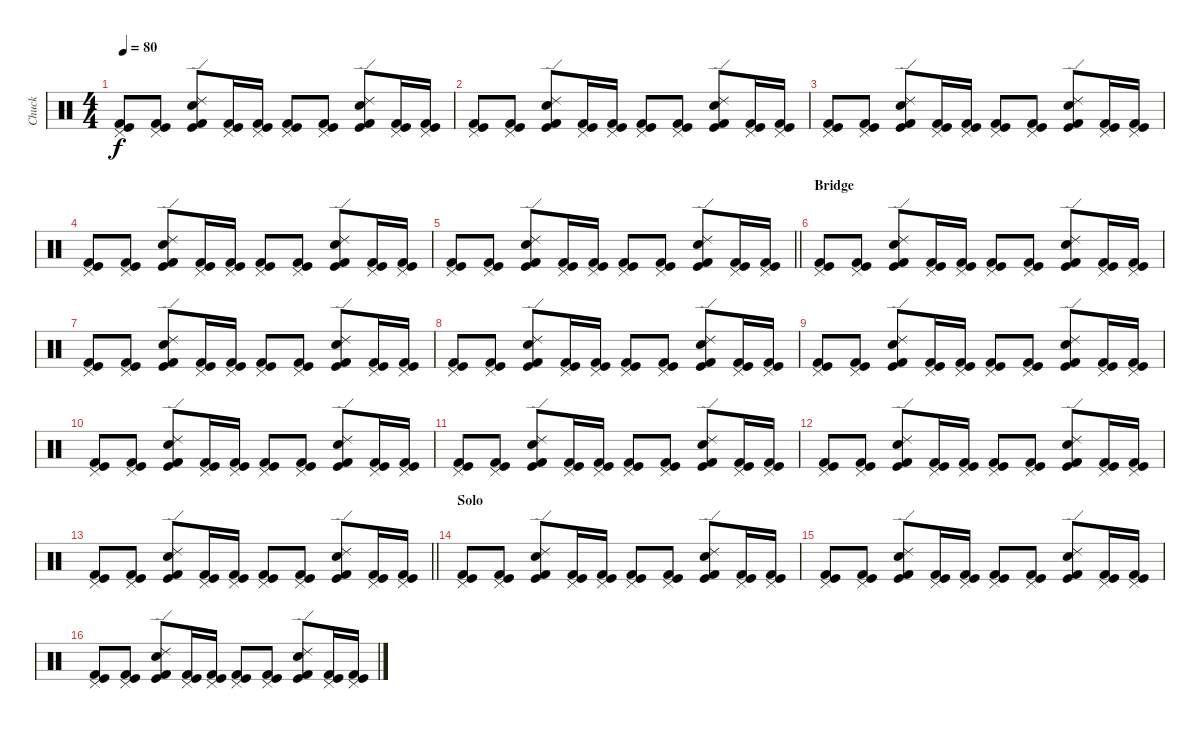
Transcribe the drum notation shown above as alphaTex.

\track ("Chuck" "Chuck") {instrument percussion}
\staff {score}
\articulation defaults
\ts (4 4)
\tempo 80
\clef neutral
\ks c
("Pedal Hi-Hat (hit)" "Kick (hit)" "Kick (hit) 2").8{dy f} ("Pedal Hi-Hat (hit)" "Kick (hit)" "Kick (hit) 2").8 ("Ride (edge) 2" "Kick (hit)" "Kick (hit) 2" "Electric Snare (hit)").8 ("Pedal Hi-Hat (hit)" "Kick (hit)" "Kick (hit) 2").16 ("Pedal Hi-Hat (hit)" "Kick (hit)" "Kick (hit) 2").16 ("Pedal Hi-Hat (hit)" "Kick (hit)" "Kick (hit) 2").8 ("Pedal Hi-Hat (hit)" "Kick (hit)" "Kick (hit) 2").8 ("Ride (edge) 2" "Kick (hit)" "Kick (hit) 2" "Electric Snare (hit)").8 ("Pedal Hi-Hat (hit)" "Kick (hit)" "Kick (hit) 2").16 ("Pedal Hi-Hat (hit)" "Kick (hit)" "Kick (hit) 2").16 |
("Pedal Hi-Hat (hit)" "Kick (hit)" "Kick (hit) 2").8 ("Pedal Hi-Hat (hit)" "Kick (hit)" "Kick (hit) 2").8 ("Ride (edge) 2" "Kick (hit)" "Kick (hit) 2" "Electric Snare (hit)").8 ("Pedal Hi-Hat (hit)" "Kick (hit)" "Kick (hit) 2").16 ("Pedal Hi-Hat (hit)" "Kick (hit)" "Kick (hit) 2").16 ("Pedal Hi-Hat (hit)" "Kick (hit)" "Kick (hit) 2").8 ("Pedal Hi-Hat (hit)" "Kick (hit)" "Kick (hit) 2").8 ("Ride (edge) 2" "Kick (hit)" "Kick (hit) 2" "Electric Snare (hit)").8 ("Pedal Hi-Hat (hit)" "Kick (hit)" "Kick (hit) 2").16 ("Pedal Hi-Hat (hit)" "Kick (hit)" "Kick (hit) 2").16 |
("Pedal Hi-Hat (hit)" "Kick (hit)" "Kick (hit) 2").8 ("Pedal Hi-Hat (hit)" "Kick (hit)" "Kick (hit) 2").8 ("Ride (edge) 2" "Kick (hit)" "Kick (hit) 2" "Electric Snare (hit)").8 ("Pedal Hi-Hat (hit)" "Kick (hit)" "Kick (hit) 2").16 ("Pedal Hi-Hat (hit)" "Kick (hit)" "Kick (hit) 2").16 ("Pedal Hi-Hat (hit)" "Kick (hit)" "Kick (hit) 2").8 ("Pedal Hi-Hat (hit)" "Kick (hit)" "Kick (hit) 2").8 ("Ride (edge) 2" "Kick (hit)" "Kick (hit) 2" "Electric Snare (hit)").8 ("Pedal Hi-Hat (hit)" "Kick (hit)" "Kick (hit) 2").16 ("Pedal Hi-Hat (hit)" "Kick (hit)" "Kick (hit) 2").16 |
("Pedal Hi-Hat (hit)" "Kick (hit)" "Kick (hit) 2").8 ("Pedal Hi-Hat (hit)" "Kick (hit)" "Kick (hit) 2").8 ("Ride (edge) 2" "Kick (hit)" "Kick (hit) 2" "Electric Snare (hit)").8 ("Pedal Hi-Hat (hit)" "Kick (hit)" "Kick (hit) 2").16 ("Pedal Hi-Hat (hit)" "Kick (hit)" "Kick (hit) 2").16 ("Pedal Hi-Hat (hit)" "Kick (hit)" "Kick (hit) 2").8 ("Pedal Hi-Hat (hit)" "Kick (hit)" "Kick (hit) 2").8 ("Ride (edge) 2" "Kick (hit)" "Kick (hit) 2" "Electric Snare (hit)").8 ("Pedal Hi-Hat (hit)" "Kick (hit)" "Kick (hit) 2").16 ("Pedal Hi-Hat (hit)" "Kick (hit)" "Kick (hit) 2").16 |
\barLineRight lightlight
("Pedal Hi-Hat (hit)" "Kick (hit)" "Kick (hit) 2").8 ("Pedal Hi-Hat (hit)" "Kick (hit)" "Kick (hit) 2").8 ("Ride (edge) 2" "Kick (hit)" "Kick (hit) 2" "Electric Snare (hit)").8 ("Pedal Hi-Hat (hit)" "Kick (hit)" "Kick (hit) 2").16 ("Pedal Hi-Hat (hit)" "Kick (hit)" "Kick (hit) 2").16 ("Pedal Hi-Hat (hit)" "Kick (hit)" "Kick (hit) 2").8 ("Pedal Hi-Hat (hit)" "Kick (hit)" "Kick (hit) 2").8 ("Ride (edge) 2" "Kick (hit)" "Kick (hit) 2" "Electric Snare (hit)").8 ("Pedal Hi-Hat (hit)" "Kick (hit)" "Kick (hit) 2").16 ("Pedal Hi-Hat (hit)" "Kick (hit)" "Kick (hit) 2").16 |
\section ("" "Bridge")
("Pedal Hi-Hat (hit)" "Kick (hit)" "Kick (hit) 2").8 ("Pedal Hi-Hat (hit)" "Kick (hit)" "Kick (hit) 2").8 ("Ride (edge) 2" "Kick (hit)" "Kick (hit) 2" "Electric Snare (hit)").8 ("Pedal Hi-Hat (hit)" "Kick (hit)" "Kick (hit) 2").16 ("Pedal Hi-Hat (hit)" "Kick (hit)" "Kick (hit) 2").16 ("Pedal Hi-Hat (hit)" "Kick (hit)" "Kick (hit) 2").8 ("Pedal Hi-Hat (hit)" "Kick (hit)" "Kick (hit) 2").8 ("Ride (edge) 2" "Kick (hit)" "Kick (hit) 2" "Electric Snare (hit)").8 ("Pedal Hi-Hat (hit)" "Kick (hit)" "Kick (hit) 2").16 ("Pedal Hi-Hat (hit)" "Kick (hit)" "Kick (hit) 2").16 |
("Pedal Hi-Hat (hit)" "Kick (hit)" "Kick (hit) 2").8 ("Pedal Hi-Hat (hit)" "Kick (hit)" "Kick (hit) 2").8 ("Ride (edge) 2" "Kick (hit)" "Kick (hit) 2" "Electric Snare (hit)").8 ("Pedal Hi-Hat (hit)" "Kick (hit)" "Kick (hit) 2").16 ("Pedal Hi-Hat (hit)" "Kick (hit)" "Kick (hit) 2").16 ("Pedal Hi-Hat (hit)" "Kick (hit)" "Kick (hit) 2").8 ("Pedal Hi-Hat (hit)" "Kick (hit)" "Kick (hit) 2").8 ("Ride (edge) 2" "Kick (hit)" "Kick (hit) 2" "Electric Snare (hit)").8 ("Pedal Hi-Hat (hit)" "Kick (hit)" "Kick (hit) 2").16 ("Pedal Hi-Hat (hit)" "Kick (hit)" "Kick (hit) 2").16 |
("Pedal Hi-Hat (hit)" "Kick (hit)" "Kick (hit) 2").8 ("Pedal Hi-Hat (hit)" "Kick (hit)" "Kick (hit) 2").8 ("Ride (edge) 2" "Kick (hit)" "Kick (hit) 2" "Electric Snare (hit)").8 ("Pedal Hi-Hat (hit)" "Kick (hit)" "Kick (hit) 2").16 ("Pedal Hi-Hat (hit)" "Kick (hit)" "Kick (hit) 2").16 ("Pedal Hi-Hat (hit)" "Kick (hit)" "Kick (hit) 2").8 ("Pedal Hi-Hat (hit)" "Kick (hit)" "Kick (hit) 2").8 ("Ride (edge) 2" "Kick (hit)" "Kick (hit) 2" "Electric Snare (hit)").8 ("Pedal Hi-Hat (hit)" "Kick (hit)" "Kick (hit) 2").16 ("Pedal Hi-Hat (hit)" "Kick (hit)" "Kick (hit) 2").16 |
("Pedal Hi-Hat (hit)" "Kick (hit)" "Kick (hit) 2").8 ("Pedal Hi-Hat (hit)" "Kick (hit)" "Kick (hit) 2").8 ("Ride (edge) 2" "Kick (hit)" "Kick (hit) 2" "Electric Snare (hit)").8 ("Pedal Hi-Hat (hit)" "Kick (hit)" "Kick (hit) 2").16 ("Pedal Hi-Hat (hit)" "Kick (hit)" "Kick (hit) 2").16 ("Pedal Hi-Hat (hit)" "Kick (hit)" "Kick (hit) 2").8 ("Pedal Hi-Hat (hit)" "Kick (hit)" "Kick (hit) 2").8 ("Ride (edge) 2" "Kick (hit)" "Kick (hit) 2" "Electric Snare (hit)").8 ("Pedal Hi-Hat (hit)" "Kick (hit)" "Kick (hit) 2").16 ("Pedal Hi-Hat (hit)" "Kick (hit)" "Kick (hit) 2").16 |
("Pedal Hi-Hat (hit)" "Kick (hit)" "Kick (hit) 2").8 ("Pedal Hi-Hat (hit)" "Kick (hit)" "Kick (hit) 2").8 ("Ride (edge) 2" "Kick (hit)" "Kick (hit) 2" "Electric Snare (hit)").8 ("Pedal Hi-Hat (hit)" "Kick (hit)" "Kick (hit) 2").16 ("Pedal Hi-Hat (hit)" "Kick (hit)" "Kick (hit) 2").16 ("Pedal Hi-Hat (hit)" "Kick (hit)" "Kick (hit) 2").8 ("Pedal Hi-Hat (hit)" "Kick (hit)" "Kick (hit) 2").8 ("Ride (edge) 2" "Kick (hit)" "Kick (hit) 2" "Electric Snare (hit)").8 ("Pedal Hi-Hat (hit)" "Kick (hit)" "Kick (hit) 2").16 ("Pedal Hi-Hat (hit)" "Kick (hit)" "Kick (hit) 2").16 |
("Pedal Hi-Hat (hit)" "Kick (hit)" "Kick (hit) 2").8 ("Pedal Hi-Hat (hit)" "Kick (hit)" "Kick (hit) 2").8 ("Ride (edge) 2" "Kick (hit)" "Kick (hit) 2" "Electric Snare (hit)").8 ("Pedal Hi-Hat (hit)" "Kick (hit)" "Kick (hit) 2").16 ("Pedal Hi-Hat (hit)" "Kick (hit)" "Kick (hit) 2").16 ("Pedal Hi-Hat (hit)" "Kick (hit)" "Kick (hit) 2").8 ("Pedal Hi-Hat (hit)" "Kick (hit)" "Kick (hit) 2").8 ("Ride (edge) 2" "Kick (hit)" "Kick (hit) 2" "Electric Snare (hit)").8 ("Pedal Hi-Hat (hit)" "Kick (hit)" "Kick (hit) 2").16 ("Pedal Hi-Hat (hit)" "Kick (hit)" "Kick (hit) 2").16 |
("Pedal Hi-Hat (hit)" "Kick (hit)" "Kick (hit) 2").8 ("Pedal Hi-Hat (hit)" "Kick (hit)" "Kick (hit) 2").8 ("Ride (edge) 2" "Kick (hit)" "Kick (hit) 2" "Electric Snare (hit)").8 ("Pedal Hi-Hat (hit)" "Kick (hit)" "Kick (hit) 2").16 ("Pedal Hi-Hat (hit)" "Kick (hit)" "Kick (hit) 2").16 ("Pedal Hi-Hat (hit)" "Kick (hit)" "Kick (hit) 2").8 ("Pedal Hi-Hat (hit)" "Kick (hit)" "Kick (hit) 2").8 ("Ride (edge) 2" "Kick (hit)" "Kick (hit) 2" "Electric Snare (hit)").8 ("Pedal Hi-Hat (hit)" "Kick (hit)" "Kick (hit) 2").16 ("Pedal Hi-Hat (hit)" "Kick (hit)" "Kick (hit) 2").16 |
\barLineRight lightlight
("Pedal Hi-Hat (hit)" "Kick (hit)" "Kick (hit) 2").8 ("Pedal Hi-Hat (hit)" "Kick (hit)" "Kick (hit) 2").8 ("Ride (edge) 2" "Kick (hit)" "Kick (hit) 2" "Electric Snare (hit)").8 ("Pedal Hi-Hat (hit)" "Kick (hit)" "Kick (hit) 2").16 ("Pedal Hi-Hat (hit)" "Kick (hit)" "Kick (hit) 2").16 ("Pedal Hi-Hat (hit)" "Kick (hit)" "Kick (hit) 2").8 ("Pedal Hi-Hat (hit)" "Kick (hit)" "Kick (hit) 2").8 ("Ride (edge) 2" "Kick (hit)" "Kick (hit) 2" "Electric Snare (hit)").8 ("Pedal Hi-Hat (hit)" "Kick (hit)" "Kick (hit) 2").16 ("Pedal Hi-Hat (hit)" "Kick (hit)" "Kick (hit) 2").16 |
\section ("" "Solo")
("Pedal Hi-Hat (hit)" "Kick (hit)" "Kick (hit) 2").8 ("Pedal Hi-Hat (hit)" "Kick (hit)" "Kick (hit) 2").8 ("Ride (edge) 2" "Kick (hit)" "Kick (hit) 2" "Electric Snare (hit)").8 ("Pedal Hi-Hat (hit)" "Kick (hit)" "Kick (hit) 2").16 ("Pedal Hi-Hat (hit)" "Kick (hit)" "Kick (hit) 2").16 ("Pedal Hi-Hat (hit)" "Kick (hit)" "Kick (hit) 2").8 ("Pedal Hi-Hat (hit)" "Kick (hit)" "Kick (hit) 2").8 ("Ride (edge) 2" "Kick (hit)" "Kick (hit) 2" "Electric Snare (hit)").8 ("Pedal Hi-Hat (hit)" "Kick (hit)" "Kick (hit) 2").16 ("Pedal Hi-Hat (hit)" "Kick (hit)" "Kick (hit) 2").16 |
("Pedal Hi-Hat (hit)" "Kick (hit)" "Kick (hit) 2").8 ("Pedal Hi-Hat (hit)" "Kick (hit)" "Kick (hit) 2").8 ("Ride (edge) 2" "Kick (hit)" "Kick (hit) 2" "Electric Snare (hit)").8 ("Pedal Hi-Hat (hit)" "Kick (hit)" "Kick (hit) 2").16 ("Pedal Hi-Hat (hit)" "Kick (hit)" "Kick (hit) 2").16 ("Pedal Hi-Hat (hit)" "Kick (hit)" "Kick (hit) 2").8 ("Pedal Hi-Hat (hit)" "Kick (hit)" "Kick (hit) 2").8 ("Ride (edge) 2" "Kick (hit)" "Kick (hit) 2" "Electric Snare (hit)").8 ("Pedal Hi-Hat (hit)" "Kick (hit)" "Kick (hit) 2").16 ("Pedal Hi-Hat (hit)" "Kick (hit)" "Kick (hit) 2").16 |
("Pedal Hi-Hat (hit)" "Kick (hit)" "Kick (hit) 2").8 ("Pedal Hi-Hat (hit)" "Kick (hit)" "Kick (hit) 2").8 ("Ride (edge) 2" "Kick (hit)" "Kick (hit) 2" "Electric Snare (hit)").8 ("Pedal Hi-Hat (hit)" "Kick (hit)" "Kick (hit) 2").16 ("Pedal Hi-Hat (hit)" "Kick (hit)" "Kick (hit) 2").16 ("Pedal Hi-Hat (hit)" "Kick (hit)" "Kick (hit) 2").8 ("Pedal Hi-Hat (hit)" "Kick (hit)" "Kick (hit) 2").8 ("Ride (edge) 2" "Kick (hit)" "Kick (hit) 2" "Electric Snare (hit)").8 ("Pedal Hi-Hat (hit)" "Kick (hit)" "Kick (hit) 2").16 ("Pedal Hi-Hat (hit)" "Kick (hit)" "Kick (hit) 2").16
